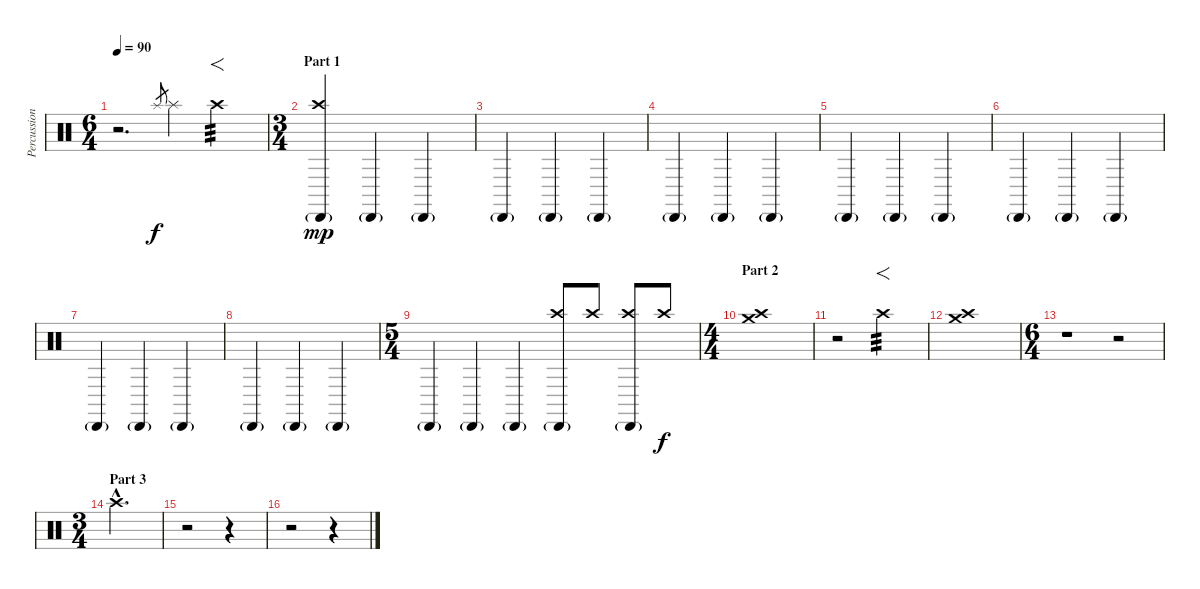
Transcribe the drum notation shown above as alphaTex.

\track ("Percussions" "Percussion") {instrument percussion}
\staff {score}
\articulation defaults
\ts (6 4)
\tempo 90
\clef neutral
\ks c
r.2{d dy f} "Splash (hit)".8{gr} "Splash (hit)".4 "Crash high (hit)".2{f tp 3} |
\ts (3 4)
\section ("" "Part 1")
("Crash high (hit)" "Cabasa (hit)"{g}).4{dy mp} "Cabasa (hit)"{g}.4 "Cabasa (hit)"{g}.4 |
"Cabasa (hit)"{g}.4 "Cabasa (hit)"{g}.4 "Cabasa (hit)"{g}.4 |
"Cabasa (hit)"{g}.4 "Cabasa (hit)"{g}.4 "Cabasa (hit)"{g}.4 |
"Cabasa (hit)"{g}.4 "Cabasa (hit)"{g}.4 "Cabasa (hit)"{g}.4 |
"Cabasa (hit)"{g}.4 "Cabasa (hit)"{g}.4 "Cabasa (hit)"{g}.4 |
"Cabasa (hit)"{g}.4 "Cabasa (hit)"{g}.4 "Cabasa (hit)"{g}.4 |
"Cabasa (hit)"{g}.4 "Cabasa (hit)"{g}.4 "Cabasa (hit)"{g}.4 |
\ts (5 4)
"Cabasa (hit)"{g}.4 "Cabasa (hit)"{g}.4 "Cabasa (hit)"{g}.4 ("Crash high (hit)" "Cabasa (hit)"{g}).8 "Crash high (hit)".8 ("Crash high (hit)" "Cabasa (hit)"{g}).8 "Crash high (hit)".8{dy f} |
\ts (4 4)
\section ("" "Part 2")
("Crash high (hit)" "Crash medium (hit)").1 |
r.2 "Crash high (hit)".2{f tp 3} |
("Crash high (hit)" "Crash medium (hit)").1 |
\ts (6 4)
r.1 r.2 |
\ts (3 4)
\section ("" "Part 3")
"Crash high (hit)"{hac}.2{d} |
r.2 r.4 |
r.2 r.4
